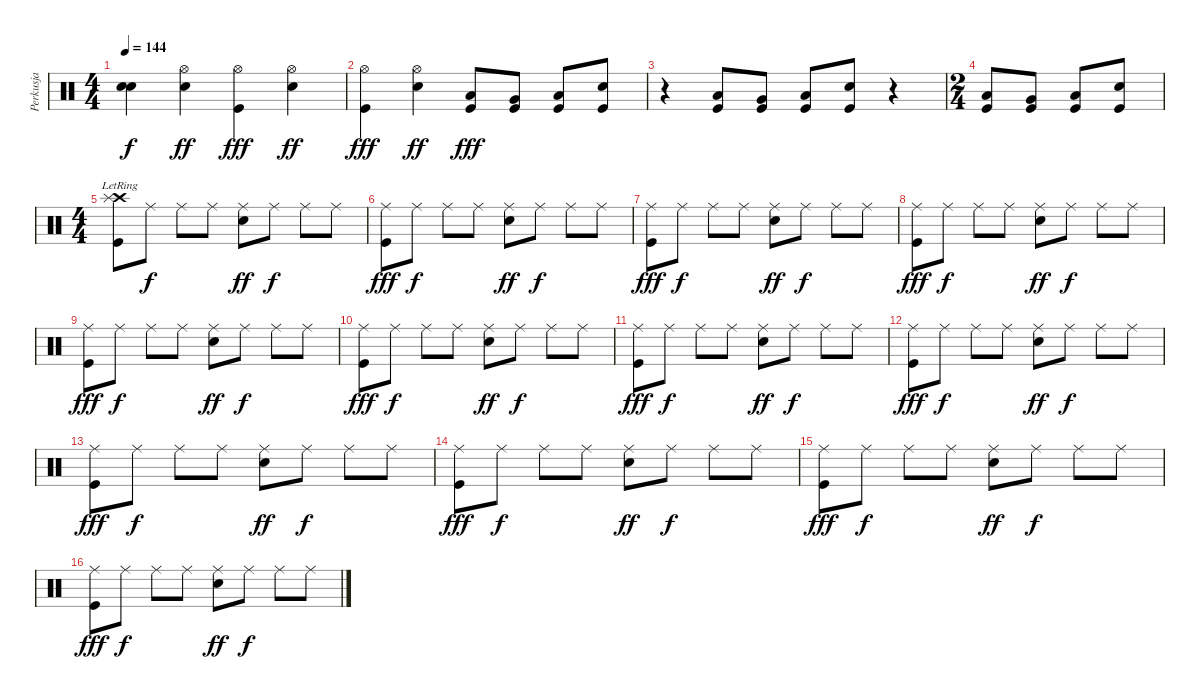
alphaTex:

\track ("Perkusja" "Perkusja") {instrument percussion}
\staff {score}
\articulation defaults
\ts (4 4)
\tempo 144
\clef neutral
\ks c
("Snare (hit)"{t} "Snare (hit)"{t}).4{dy f} ("Hi-Hat (open)" "Electric Snare (hit)").4{dy ff} ("Hi-Hat (open)" "Kick (hit)").4{dy fff} ("Hi-Hat (open)" "Electric Snare (hit)").4{dy ff} |
("Hi-Hat (open)" "Kick (hit)").4{dy fff} ("Hi-Hat (open)" "Electric Snare (hit)").4{dy ff} ("Low Tom (hit)" "Kick (hit)").8{dy fff} ("Very Low Tom (hit)" "Kick (hit)").8 ("Low Floor Tom (hit)" "Kick (hit)").8 ("Electric Snare (hit)" "Kick (hit)").8 |
r.4 ("Low Tom (hit)" "Kick (hit)").8 ("Very Low Tom (hit)" "Kick (hit)").8 ("Low Floor Tom (hit)" "Kick (hit)").8 ("Electric Snare (hit)" "Kick (hit)").8 r.4 |
\ts (2 4)
("Low Tom (hit)" "Kick (hit)").8 ("Very Low Tom (hit)" "Kick (hit)").8 ("Low Floor Tom (hit)" "Kick (hit)").8 ("Electric Snare (hit)" "Kick (hit)").8 |
\ts (4 4)
("Crash high (hit)"{lr} "Splash (hit)"{lr} "Kick (hit)").8 "Ride (middle)".8{dy f} "Ride (middle)".8 "Ride (middle)".8 ("Ride (middle)" "Electric Snare (hit)").8{dy ff} "Ride (middle)".8{dy f} "Ride (middle)".8 "Ride (middle)".8 |
("Ride (middle)" "Kick (hit)").8{dy fff} "Ride (middle)".8{dy f} "Ride (middle)".8 "Ride (middle)".8 ("Ride (middle)" "Electric Snare (hit)").8{dy ff} "Ride (middle)".8{dy f} "Ride (middle)".8 "Ride (middle)".8 |
("Ride (middle)" "Kick (hit)").8{dy fff} "Ride (middle)".8{dy f} "Ride (middle)".8 "Ride (middle)".8 ("Ride (middle)" "Electric Snare (hit)").8{dy ff} "Ride (middle)".8{dy f} "Ride (middle)".8 "Ride (middle)".8 |
("Ride (middle)" "Kick (hit)").8{dy fff} "Ride (middle)".8{dy f} "Ride (middle)".8 "Ride (middle)".8 ("Ride (middle)" "Electric Snare (hit)").8{dy ff} "Ride (middle)".8{dy f} "Ride (middle)".8 "Ride (middle)".8 |
("Ride (middle)" "Kick (hit)").8{dy fff} "Ride (middle)".8{dy f} "Ride (middle)".8 "Ride (middle)".8 ("Ride (middle)" "Electric Snare (hit)").8{dy ff} "Ride (middle)".8{dy f} "Ride (middle)".8 "Ride (middle)".8 |
("Ride (middle)" "Kick (hit)").8{dy fff} "Ride (middle)".8{dy f} "Ride (middle)".8 "Ride (middle)".8 ("Ride (middle)" "Electric Snare (hit)").8{dy ff} "Ride (middle)".8{dy f} "Ride (middle)".8 "Ride (middle)".8 |
("Ride (middle)" "Kick (hit)").8{dy fff} "Ride (middle)".8{dy f} "Ride (middle)".8 "Ride (middle)".8 ("Ride (middle)" "Electric Snare (hit)").8{dy ff} "Ride (middle)".8{dy f} "Ride (middle)".8 "Ride (middle)".8 |
("Ride (middle)" "Kick (hit)").8{dy fff} "Ride (middle)".8{dy f} "Ride (middle)".8 "Ride (middle)".8 ("Ride (middle)" "Electric Snare (hit)").8{dy ff} "Ride (middle)".8{dy f} "Ride (middle)".8 "Ride (middle)".8 |
("Ride (middle)" "Kick (hit)").8{dy fff} "Ride (middle)".8{dy f} "Ride (middle)".8 "Ride (middle)".8 ("Ride (middle)" "Electric Snare (hit)").8{dy ff} "Ride (middle)".8{dy f} "Ride (middle)".8 "Ride (middle)".8 |
("Ride (middle)" "Kick (hit)").8{dy fff} "Ride (middle)".8{dy f} "Ride (middle)".8 "Ride (middle)".8 ("Ride (middle)" "Electric Snare (hit)").8{dy ff} "Ride (middle)".8{dy f} "Ride (middle)".8 "Ride (middle)".8 |
("Ride (middle)" "Kick (hit)").8{dy fff} "Ride (middle)".8{dy f} "Ride (middle)".8 "Ride (middle)".8 ("Ride (middle)" "Electric Snare (hit)").8{dy ff} "Ride (middle)".8{dy f} "Ride (middle)".8 "Ride (middle)".8 |
("Ride (middle)" "Kick (hit)").8{dy fff} "Ride (middle)".8{dy f} "Ride (middle)".8 "Ride (middle)".8 ("Ride (middle)" "Electric Snare (hit)").8{dy ff} "Ride (middle)".8{dy f} "Ride (middle)".8 "Ride (middle)".8
